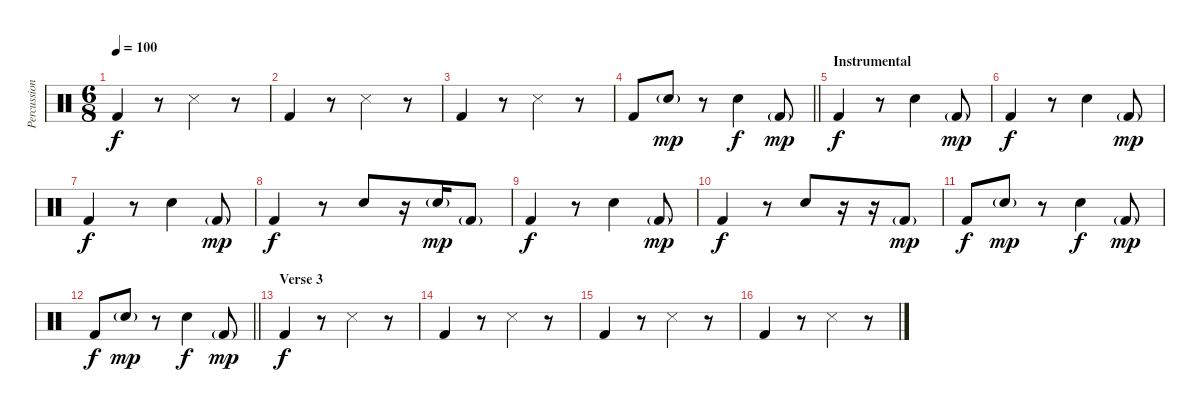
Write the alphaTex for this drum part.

\track ("Percussion" "Percussion") {instrument percussion}
\staff {score}
\articulation defaults
\ts (6 8)
\tempo 100
\clef neutral
\ks c "Kick (hit) 2".4{dy f}
r.8 "Snare (side stick) 3".4 r.8 |
"Kick (hit) 2".4 r.8 "Snare (side stick) 3".4 r.8 |
"Kick (hit) 2".4 r.8 "Snare (side stick) 3".4 r.8 |
\barLineRight lightlight "Kick (hit) 2".8 "Snare (hit) 2"{g}.8{dy mp}
r.8 "Snare (hit) 2".4{dy f} "Kick (hit) 2"{g}.8{dy mp} |
\section ("" "Instrumental")
"Kick (hit) 2".4{dy f} r.8 "Snare (hit) 2".4 "Kick (hit) 2"{g}.8{dy mp} |
"Kick (hit) 2".4{dy f} r.8 "Snare (hit) 2".4 "Kick (hit) 2"{g}.8{dy mp} |
"Kick (hit) 2".4{dy f} r.8 "Snare (hit) 2".4 "Kick (hit) 2"{g}.8{dy mp} |
"Kick (hit) 2".4{dy f} r.8 "Snare (hit) 2".8 r.16 "Snare (hit) 2"{g}.16{dy mp} "Kick (hit) 2"{g}.8 |
"Kick (hit) 2".4{dy f} r.8 "Snare (hit) 2".4 "Kick (hit) 2"{g}.8{dy mp} |
"Kick (hit) 2".4{dy f} r.8 "Snare (hit) 2".8 r.16 r.16 "Kick (hit) 2"{g}.8{dy mp} |
"Kick (hit) 2".8{dy f} "Snare (hit) 2"{g}.8{dy mp} r.8 "Snare (hit) 2".4{dy f} "Kick (hit) 2"{g}.8{dy mp} |
\barLineRight lightlight "Kick (hit) 2".8{dy f} "Snare (hit) 2"{g}.8{dy mp}
r.8 "Snare (hit) 2".4{dy f} "Kick (hit) 2"{g}.8{dy mp} |
\section ("" "Verse 3")
"Kick (hit) 2".4{dy f} r.8 "Snare (side stick) 3".4 r.8 |
"Kick (hit) 2".4 r.8 "Snare (side stick) 3".4 r.8 |
"Kick (hit) 2".4 r.8 "Snare (side stick) 3".4 r.8 |
"Kick (hit) 2".4 r.8 "Snare (side stick) 3".4 r.8
